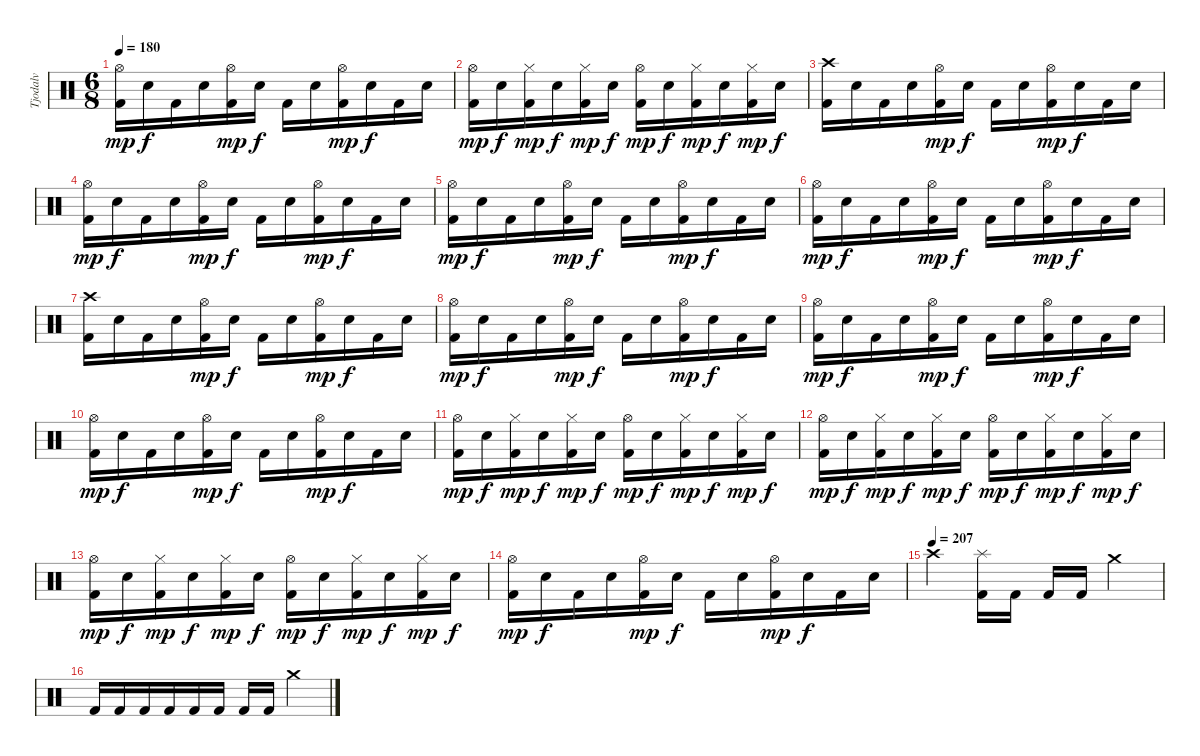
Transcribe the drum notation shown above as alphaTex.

\track ("Tjodalv" "Tjodalv") {instrument percussion}
\staff {score}
\articulation defaults
\ts (6 8)
\tempo 180
\clef neutral
\ks c
("Hi-Hat (open)" "Kick (hit) 2").16{dy mp} "Electric Snare (hit)".16{dy f} "Kick (hit) 2".16 "Electric Snare (hit)".16 ("Hi-Hat (open)" "Kick (hit) 2").16{dy mp} "Electric Snare (hit)".16{dy f} "Kick (hit) 2".16 "Electric Snare (hit)".16 ("Hi-Hat (open)" "Kick (hit) 2").16{dy mp} "Electric Snare (hit)".16{dy f} "Kick (hit) 2".16 "Electric Snare (hit)".16 |
("Hi-Hat (open)" "Kick (hit) 2").16{dy mp} "Electric Snare (hit)".16{dy f} ("Hi-Hat (closed)" "Kick (hit) 2").16{dy mp} "Electric Snare (hit)".16{dy f} ("Hi-Hat (closed)" "Kick (hit) 2").16{dy mp} "Electric Snare (hit)".16{dy f} ("Hi-Hat (open)" "Kick (hit) 2").16{dy mp} "Electric Snare (hit)".16{dy f} ("Hi-Hat (closed)" "Kick (hit) 2").16{dy mp} "Electric Snare (hit)".16{dy f} ("Hi-Hat (closed)" "Kick (hit) 2").16{dy mp} "Electric Snare (hit)".16{dy f} |
("Crash high (hit)" "Kick (hit) 2").16 "Electric Snare (hit)".16 "Kick (hit) 2".16 "Electric Snare (hit)".16 ("Hi-Hat (open)" "Kick (hit) 2").16{dy mp} "Electric Snare (hit)".16{dy f} "Kick (hit) 2".16 "Electric Snare (hit)".16 ("Hi-Hat (open)" "Kick (hit) 2").16{dy mp} "Electric Snare (hit)".16{dy f} "Kick (hit) 2".16 "Electric Snare (hit)".16 |
("Hi-Hat (open)" "Kick (hit) 2").16{dy mp} "Electric Snare (hit)".16{dy f} "Kick (hit) 2".16 "Electric Snare (hit)".16 ("Hi-Hat (open)" "Kick (hit) 2").16{dy mp} "Electric Snare (hit)".16{dy f} "Kick (hit) 2".16 "Electric Snare (hit)".16 ("Hi-Hat (open)" "Kick (hit) 2").16{dy mp} "Electric Snare (hit)".16{dy f} "Kick (hit) 2".16 "Electric Snare (hit)".16 |
("Hi-Hat (open)" "Kick (hit) 2").16{dy mp} "Electric Snare (hit)".16{dy f} "Kick (hit) 2".16 "Electric Snare (hit)".16 ("Hi-Hat (open)" "Kick (hit) 2").16{dy mp} "Electric Snare (hit)".16{dy f} "Kick (hit) 2".16 "Electric Snare (hit)".16 ("Hi-Hat (open)" "Kick (hit) 2").16{dy mp} "Electric Snare (hit)".16{dy f} "Kick (hit) 2".16 "Electric Snare (hit)".16 |
("Hi-Hat (open)" "Kick (hit) 2").16{dy mp} "Electric Snare (hit)".16{dy f} "Kick (hit) 2".16 "Electric Snare (hit)".16 ("Hi-Hat (open)" "Kick (hit) 2").16{dy mp} "Electric Snare (hit)".16{dy f} "Kick (hit) 2".16 "Electric Snare (hit)".16 ("Hi-Hat (open)" "Kick (hit) 2").16{dy mp} "Electric Snare (hit)".16{dy f} "Kick (hit) 2".16 "Electric Snare (hit)".16 |
("Crash high (hit)" "Kick (hit) 2").16 "Electric Snare (hit)".16 "Kick (hit) 2".16 "Electric Snare (hit)".16 ("Hi-Hat (open)" "Kick (hit) 2").16{dy mp} "Electric Snare (hit)".16{dy f} "Kick (hit) 2".16 "Electric Snare (hit)".16 ("Hi-Hat (open)" "Kick (hit) 2").16{dy mp} "Electric Snare (hit)".16{dy f} "Kick (hit) 2".16 "Electric Snare (hit)".16 |
("Hi-Hat (open)" "Kick (hit) 2").16{dy mp} "Electric Snare (hit)".16{dy f} "Kick (hit) 2".16 "Electric Snare (hit)".16 ("Hi-Hat (open)" "Kick (hit) 2").16{dy mp} "Electric Snare (hit)".16{dy f} "Kick (hit) 2".16 "Electric Snare (hit)".16 ("Hi-Hat (open)" "Kick (hit) 2").16{dy mp} "Electric Snare (hit)".16{dy f} "Kick (hit) 2".16 "Electric Snare (hit)".16 |
("Hi-Hat (open)" "Kick (hit) 2").16{dy mp} "Electric Snare (hit)".16{dy f} "Kick (hit) 2".16 "Electric Snare (hit)".16 ("Hi-Hat (open)" "Kick (hit) 2").16{dy mp} "Electric Snare (hit)".16{dy f} "Kick (hit) 2".16 "Electric Snare (hit)".16 ("Hi-Hat (open)" "Kick (hit) 2").16{dy mp} "Electric Snare (hit)".16{dy f} "Kick (hit) 2".16 "Electric Snare (hit)".16 |
("Hi-Hat (open)" "Kick (hit) 2").16{dy mp} "Electric Snare (hit)".16{dy f} "Kick (hit) 2".16 "Electric Snare (hit)".16 ("Hi-Hat (open)" "Kick (hit) 2").16{dy mp} "Electric Snare (hit)".16{dy f} "Kick (hit) 2".16 "Electric Snare (hit)".16 ("Hi-Hat (open)" "Kick (hit) 2").16{dy mp} "Electric Snare (hit)".16{dy f} "Kick (hit) 2".16 "Electric Snare (hit)".16 |
("Hi-Hat (open)" "Kick (hit) 2").16{dy mp} "Electric Snare (hit)".16{dy f} ("Hi-Hat (closed)" "Kick (hit) 2").16{dy mp} "Electric Snare (hit)".16{dy f} ("Hi-Hat (closed)" "Kick (hit) 2").16{dy mp} "Electric Snare (hit)".16{dy f} ("Hi-Hat (open)" "Kick (hit) 2").16{dy mp} "Electric Snare (hit)".16{dy f} ("Hi-Hat (closed)" "Kick (hit) 2").16{dy mp} "Electric Snare (hit)".16{dy f} ("Hi-Hat (closed)" "Kick (hit) 2").16{dy mp} "Electric Snare (hit)".16{dy f} |
("Hi-Hat (open)" "Kick (hit) 2").16{dy mp} "Electric Snare (hit)".16{dy f} ("Hi-Hat (closed)" "Kick (hit) 2").16{dy mp} "Electric Snare (hit)".16{dy f} ("Hi-Hat (closed)" "Kick (hit) 2").16{dy mp} "Electric Snare (hit)".16{dy f} ("Hi-Hat (open)" "Kick (hit) 2").16{dy mp} "Electric Snare (hit)".16{dy f} ("Hi-Hat (closed)" "Kick (hit) 2").16{dy mp} "Electric Snare (hit)".16{dy f} ("Hi-Hat (closed)" "Kick (hit) 2").16{dy mp} "Electric Snare (hit)".16{dy f} |
("Hi-Hat (open)" "Kick (hit) 2").16{dy mp} "Electric Snare (hit)".16{dy f} ("Hi-Hat (closed)" "Kick (hit) 2").16{dy mp} "Electric Snare (hit)".16{dy f} ("Hi-Hat (closed)" "Kick (hit) 2").16{dy mp} "Electric Snare (hit)".16{dy f} ("Hi-Hat (open)" "Kick (hit) 2").16{dy mp} "Electric Snare (hit)".16{dy f} ("Hi-Hat (closed)" "Kick (hit) 2").16{dy mp} "Electric Snare (hit)".16{dy f} ("Hi-Hat (closed)" "Kick (hit) 2").16{dy mp} "Electric Snare (hit)".16{dy f} |
("Hi-Hat (open)" "Kick (hit) 2").16{dy mp} "Electric Snare (hit)".16{dy f} "Kick (hit) 2".16 "Electric Snare (hit)".16 ("Hi-Hat (open)" "Kick (hit) 2").16{dy mp} "Electric Snare (hit)".16{dy f} "Kick (hit) 2".16 "Electric Snare (hit)".16 ("Hi-Hat (open)" "Kick (hit) 2").16{dy mp} "Electric Snare (hit)".16{dy f} "Kick (hit) 2".16 "Electric Snare (hit)".16 |
\tempo (207)
"Crash high (hit)".4 ("Splash (hit)" "Kick (hit) 2").16 "Kick (hit) 2".16 "Kick (hit) 2".16 "Kick (hit) 2".16 "Crash medium (hit)".4 |
"Kick (hit) 2".16 "Kick (hit) 2".16 "Kick (hit) 2".16 "Kick (hit) 2".16 "Kick (hit) 2".16 "Kick (hit) 2".16 "Kick (hit) 2".16 "Kick (hit) 2".16 "Crash medium (hit)".4
